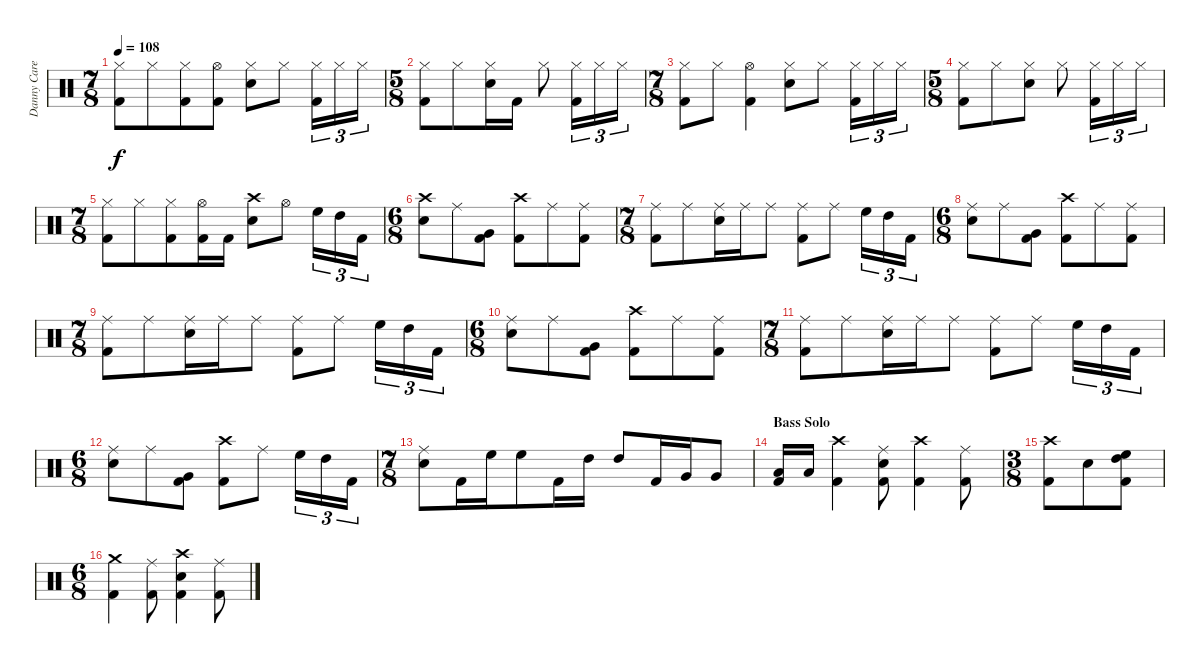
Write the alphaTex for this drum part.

\track ("Danny Carey" "Danny Care") {instrument percussion}
\staff {score}
\articulation defaults
\ts (7 8)
\tempo 108
\clef neutral
\ks c
("Hi-Hat (closed)" "Kick (hit) 2").8{dy f} "Hi-Hat (closed)".8 ("Hi-Hat (closed)" "Kick (hit) 2").8 ("Hi-Hat (open)" "Kick (hit) 2").8 ("Hi-Hat (closed)" "Electric Snare (hit)").8 "Hi-Hat (closed)".8 ("Hi-Hat (closed)" "Kick (hit) 2").16{tu (3 2)} "Hi-Hat (closed)".16{tu (3 2)} "Hi-Hat (closed)".16{tu (3 2)} |
\ts (5 8)
("Hi-Hat (closed)" "Kick (hit) 2").8 "Hi-Hat (closed)".8 ("Hi-Hat (closed)" "Electric Snare (hit)").16 "Kick (hit) 2".16 "Hi-Hat (closed)".8 ("Hi-Hat (closed)" "Kick (hit) 2").16{tu (3 2)} "Hi-Hat (closed)".16{tu (3 2)} "Hi-Hat (closed)".16{tu (3 2)} |
\ts (7 8)
("Hi-Hat (closed)" "Kick (hit) 2").8 "Hi-Hat (closed)".8 ("Hi-Hat (open)" "Kick (hit) 2").4 ("Hi-Hat (closed)" "Electric Snare (hit)").8 "Hi-Hat (closed)".8 ("Hi-Hat (closed)" "Kick (hit) 2").16{tu (3 2)} "Hi-Hat (closed)".16{tu (3 2)} "Hi-Hat (closed)".16{tu (3 2)} |
\ts (5 8)
("Hi-Hat (closed)" "Kick (hit) 2").8 "Hi-Hat (closed)".8 ("Hi-Hat (closed)" "Electric Snare (hit)").8 "Hi-Hat (closed)".8 ("Hi-Hat (closed)" "Kick (hit) 2").16{tu (3 2)} "Hi-Hat (closed)".16{tu (3 2)} "Hi-Hat (closed)".16{tu (3 2)} |
\ts (7 8)
("Hi-Hat (closed)" "Kick (hit) 2").8 "Hi-Hat (closed)".8 ("Hi-Hat (closed)" "Kick (hit) 2").8 ("Hi-Hat (open)" "Kick (hit) 2").16 "Kick (hit) 2".16 ("Crash high (hit)" "Electric Snare (hit)").8 "Hi-Hat (open)".8 "High Floor Tom (hit)".16{tu (3 2)} "High Tom (hit)".16{tu (3 2)} "Kick (hit) 2".16{tu (3 2)} |
\ts (6 8)
("Crash high (hit)" "Electric Snare (hit)").8 "Ride (middle)".8 ("Very Low Tom (hit)" "Kick (hit) 2").8 ("Crash high (hit)" "Kick (hit) 2").8 "Ride (middle)".8 ("Ride (middle)" "Kick (hit) 2").8 |
\ts (7 8)
("Ride (middle)" "Kick (hit) 2").8 "Ride (middle)".8 ("Ride (middle)" "Electric Snare (hit)").16 "Ride (middle)".16 "Ride (middle)".8 ("Ride (middle)" "Kick (hit) 2").8 "Ride (middle)".8 "High Floor Tom (hit)".16{tu (3 2)} "High Tom (hit)".16{tu (3 2)} "Kick (hit) 2".16{tu (3 2)} |
\ts (6 8)
("Ride (middle)" "Electric Snare (hit)").8 "Ride (middle)".8 ("Very Low Tom (hit)" "Kick (hit) 2").8 ("Crash high (hit)" "Kick (hit) 2").8 "Ride (middle)".8 ("Ride (middle)" "Kick (hit) 2").8 |
\ts (7 8)
("Ride (middle)" "Kick (hit) 2").8 "Ride (middle)".8 ("Ride (middle)" "Electric Snare (hit)").16 "Ride (middle)".16 "Ride (middle)".8 ("Ride (middle)" "Kick (hit) 2").8 "Ride (middle)".8 "High Floor Tom (hit)".16{tu (3 2)} "High Tom (hit)".16{tu (3 2)} "Kick (hit) 2".16{tu (3 2)} |
\ts (6 8)
("Ride (middle)" "Electric Snare (hit)").8 "Ride (middle)".8 ("Very Low Tom (hit)" "Kick (hit) 2").8 ("Crash high (hit)" "Kick (hit) 2").8 "Ride (middle)".8 ("Ride (middle)" "Kick (hit) 2").8 |
\ts (7 8)
("Ride (middle)" "Kick (hit) 2").8 "Ride (middle)".8 ("Ride (middle)" "Electric Snare (hit)").16 "Ride (middle)".16 "Ride (middle)".8 ("Ride (middle)" "Kick (hit) 2").8 "Ride (middle)".8 "High Floor Tom (hit)".16{tu (3 2)} "High Tom (hit)".16{tu (3 2)} "Kick (hit) 2".16{tu (3 2)} |
\ts (6 8)
("Ride (middle)" "Electric Snare (hit)").8 "Ride (middle)".8 ("Very Low Tom (hit)" "Kick (hit) 2").8 ("Crash high (hit)" "Kick (hit) 2").8 "Ride (middle)".8 "High Floor Tom (hit)".16{tu (3 2)} "High Tom (hit)".16{tu (3 2)} "Kick (hit) 2".16{tu (3 2)} |
\ts (7 8)
("Ride (middle)" "Electric Snare (hit)").8 "Kick (hit) 2".16 "High Floor Tom (hit)".16 "High Floor Tom (hit)".8 "Kick (hit) 2".16 "High Tom (hit)".16 "High Tom (hit)".8 "Kick (hit) 2".16 "Very Low Tom (hit)".16 "Very Low Tom (hit)".8 |
\section ("" "Bass Solo")
("Low Floor Tom (hit)" "Kick (hit) 2").16 "Low Floor Tom (hit)".16 ("Crash high (hit)" "Kick (hit) 2").4 ("Ride (middle)" "Electric Snare (hit)" "Kick (hit) 2").8 ("Crash high (hit)" "Kick (hit) 2").4 ("Ride (middle)" "Kick (hit) 2").8 |
\ts (3 8)
("Crash high (hit)" "Kick (hit) 2").8 "Electric Snare (hit)".8 ("High Tom (hit)" "High Floor Tom (hit)" "Kick (hit) 2").8 |
\ts (6 8)
("Crash medium (hit)" "Kick (hit) 2").4 ("Ride (middle)" "Kick (hit) 2").8 ("Crash high (hit)" "Electric Snare (hit)" "Kick (hit) 2").4 ("Ride (middle)" "Kick (hit) 2").8
